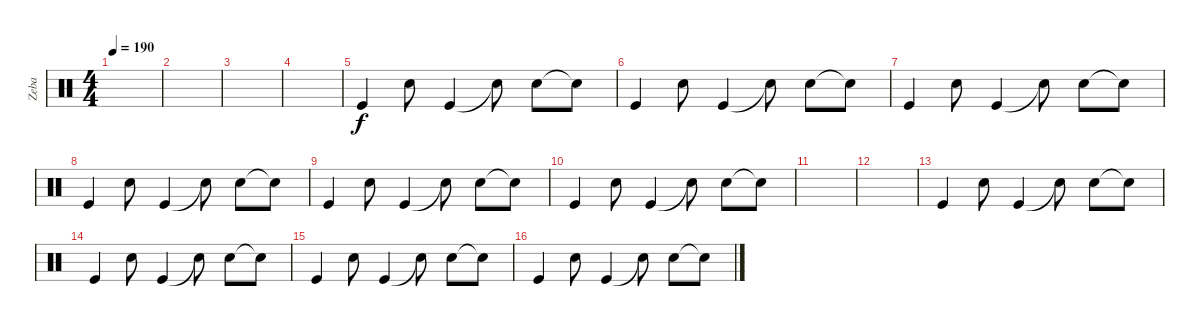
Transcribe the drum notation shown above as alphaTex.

\track ("Zeba" "Zeba") {instrument percussion}
\staff {score}
\articulation defaults
\ts (4 4)
\tempo 190
\clef neutral
\ks c
|
|
|
|
"Kick (hit)".4 "Snare (hit) 2".8 "Kick (hit)".4 "Snare (hit) 2"{t}.8 "Snare (hit) 2".8 "Snare (hit)"{t}.8 |
"Kick (hit)".4 "Snare (hit) 2".8 "Kick (hit)".4 "Snare (hit) 2"{t}.8 "Snare (hit) 2".8 "Snare (hit)"{t}.8 |
"Kick (hit)".4 "Snare (hit) 2".8 "Kick (hit)".4 "Snare (hit) 2"{t}.8 "Snare (hit) 2".8 "Snare (hit)"{t}.8 |
"Kick (hit)".4 "Snare (hit) 2".8 "Kick (hit)".4 "Snare (hit) 2"{t}.8 "Snare (hit) 2".8 "Snare (hit)"{t}.8 |
"Kick (hit)".4 "Snare (hit) 2".8 "Kick (hit)".4 "Snare (hit) 2"{t}.8 "Snare (hit) 2".8 "Snare (hit)"{t}.8 |
"Kick (hit)".4 "Snare (hit) 2".8 "Kick (hit)".4 "Snare (hit) 2"{t}.8 "Snare (hit) 2".8 "Snare (hit)"{t}.8 |
|
|
"Kick (hit)".4 "Snare (hit) 2".8 "Kick (hit)".4 "Snare (hit) 2"{t}.8 "Snare (hit) 2".8 "Snare (hit)"{t}.8 |
"Kick (hit)".4 "Snare (hit) 2".8 "Kick (hit)".4 "Snare (hit) 2"{t}.8 "Snare (hit) 2".8 "Snare (hit)"{t}.8 |
"Kick (hit)".4 "Snare (hit) 2".8 "Kick (hit)".4 "Snare (hit) 2"{t}.8 "Snare (hit) 2".8 "Snare (hit)"{t}.8 |
"Kick (hit)".4 "Snare (hit) 2".8 "Kick (hit)".4 "Snare (hit) 2"{t}.8 "Snare (hit) 2".8 "Snare (hit)"{t}.8
